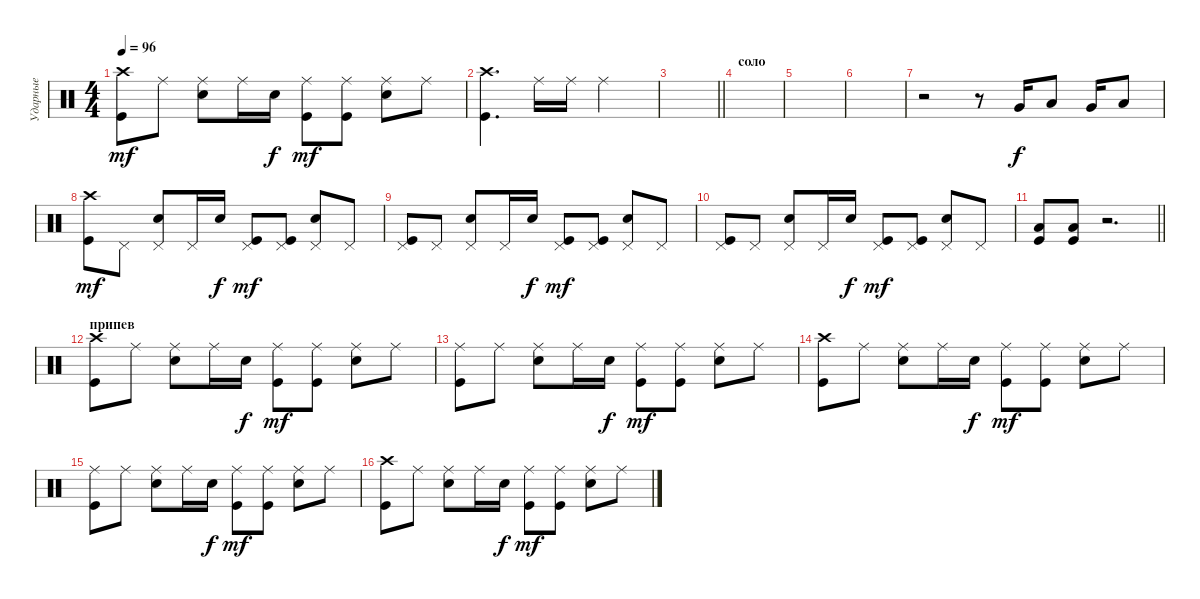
\track ("Ударные" "Ударные") {instrument percussion}
\staff {score}
\articulation defaults
\ts (4 4)
\tempo 96
\clef neutral
\ks c
("Kick (hit)" "Crash high (hit)").8{dy mf} "Ride (middle)".8 ("Electric Snare (hit)" "Ride (middle)").8 "Ride (middle)".16 "Electric Snare (hit)".16{dy f} ("Kick (hit)" "Ride (middle)").8{dy mf} ("Kick (hit)" "Ride (middle)").8 ("Electric Snare (hit)" "Ride (middle)").8 "Ride (middle)".8 |
("Kick (hit)" "Crash high (hit)").4{d} "Ride (middle)".16 "Ride (middle)".16 "Ride (middle)".2 |
\barLineRight lightlight
|
\section ("" "соло")
|
|
|
r.2 r.8 "Very Low Tom (hit)".16{dy f} "Low Floor Tom (hit)".8 "Very Low Tom (hit)".16 "Low Floor Tom (hit)".8 |
("Kick (hit)" "Crash high (hit)").8{dy mf} "Pedal Hi-Hat (hit)".8 ("Electric Snare (hit)" "Pedal Hi-Hat (hit)").8 "Pedal Hi-Hat (hit)".16 "Electric Snare (hit)".16{dy f} ("Kick (hit)" "Pedal Hi-Hat (hit)").8{dy mf} ("Kick (hit)" "Pedal Hi-Hat (hit)").8 ("Electric Snare (hit)" "Pedal Hi-Hat (hit)").8 "Pedal Hi-Hat (hit)".8 |
("Kick (hit)" "Pedal Hi-Hat (hit)").8 "Pedal Hi-Hat (hit)".8 ("Electric Snare (hit)" "Pedal Hi-Hat (hit)").8 "Pedal Hi-Hat (hit)".16 "Electric Snare (hit)".16{dy f} ("Kick (hit)" "Pedal Hi-Hat (hit)").8{dy mf} ("Kick (hit)" "Pedal Hi-Hat (hit)").8 ("Electric Snare (hit)" "Pedal Hi-Hat (hit)").8 "Pedal Hi-Hat (hit)".8 |
("Kick (hit)" "Pedal Hi-Hat (hit)").8 "Pedal Hi-Hat (hit)".8 ("Electric Snare (hit)" "Pedal Hi-Hat (hit)").8 "Pedal Hi-Hat (hit)".16 "Electric Snare (hit)".16{dy f} ("Kick (hit)" "Pedal Hi-Hat (hit)").8{dy mf} ("Kick (hit)" "Pedal Hi-Hat (hit)").8 ("Electric Snare (hit)" "Pedal Hi-Hat (hit)").8 "Pedal Hi-Hat (hit)".8 |
\barLineRight lightlight
("Kick (hit)" "Low Floor Tom (hit)").8 ("Kick (hit)" "Low Floor Tom (hit)").8 r.2{d} |
\section ("" "припев")
("Kick (hit)" "Crash high (hit)").8 "Ride (middle)".8 ("Electric Snare (hit)" "Ride (middle)").8 "Ride (middle)".16 "Electric Snare (hit)".16{dy f} ("Kick (hit)" "Ride (middle)").8{dy mf} ("Kick (hit)" "Ride (middle)").8 ("Electric Snare (hit)" "Ride (middle)").8 "Ride (middle)".8 |
("Kick (hit)" "Ride (middle)").8 "Ride (middle)".8 ("Electric Snare (hit)" "Ride (middle)").8 "Ride (middle)".16 "Electric Snare (hit)".16{dy f} ("Kick (hit)" "Ride (middle)").8{dy mf} ("Kick (hit)" "Ride (middle)").8 ("Electric Snare (hit)" "Ride (middle)").8 "Ride (middle)".8 |
("Kick (hit)" "Crash high (hit)").8 "Ride (middle)".8 ("Electric Snare (hit)" "Ride (middle)").8 "Ride (middle)".16 "Electric Snare (hit)".16{dy f} ("Kick (hit)" "Ride (middle)").8{dy mf} ("Kick (hit)" "Ride (middle)").8 ("Electric Snare (hit)" "Ride (middle)").8 "Ride (middle)".8 |
("Kick (hit)" "Ride (middle)").8 "Ride (middle)".8 ("Electric Snare (hit)" "Ride (middle)").8 "Ride (middle)".16 "Electric Snare (hit)".16{dy f} ("Kick (hit)" "Ride (middle)").8{dy mf} ("Kick (hit)" "Ride (middle)").8 ("Electric Snare (hit)" "Ride (middle)").8 "Ride (middle)".8 |
("Kick (hit)" "Crash high (hit)").8 "Ride (middle)".8 ("Electric Snare (hit)" "Ride (middle)").8 "Ride (middle)".16 "Electric Snare (hit)".16{dy f} ("Kick (hit)" "Ride (middle)").8{dy mf} ("Kick (hit)" "Ride (middle)").8 ("Electric Snare (hit)" "Ride (middle)").8 "Ride (middle)".8
